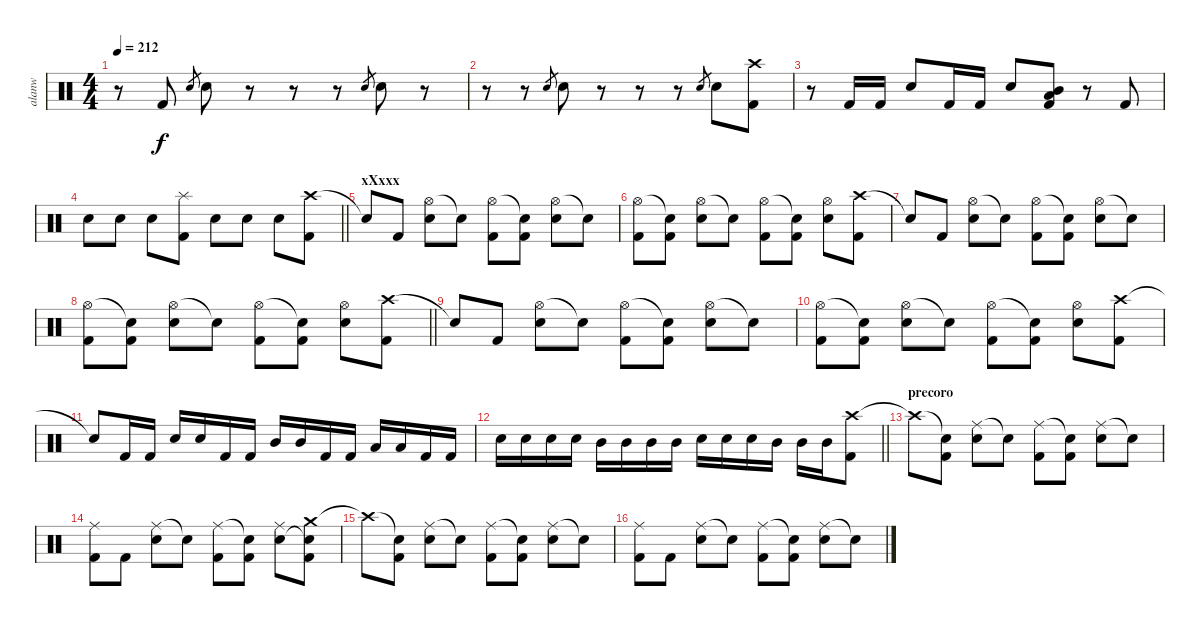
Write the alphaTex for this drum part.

\track ("alanw" "alanw") {instrument percussion}
\staff {score}
\articulation defaults
\ts (4 4)
\tempo 212
\clef neutral
\ks c
r.8{dy f} "Kick (hit) 2".8 "Electric Snare (hit)".8{gr} "Electric Snare (hit)".8 r.8 r.8 r.8 "Electric Snare (hit)".8{gr} "Electric Snare (hit)".8 r.8 |
r.8 r.8 "Electric Snare (hit)".8{gr} "Electric Snare (hit)".8 r.8 r.8 r.8 "Electric Snare (hit)".8{gr} "Electric Snare (hit)".8 ("Crash high (hit)" "Kick (hit) 2").8 |
r.8 "Kick (hit) 2".16 "Kick (hit) 2".16 "Electric Snare (hit)".8 "Kick (hit) 2".16 "Kick (hit) 2".16 "Electric Snare (hit)".8 ("Mid Tom (hit)" "Low Tom (hit)" "Kick (hit) 2").8 r.8 "Kick (hit) 2".8 |
\barLineRight lightlight "Electric Snare (hit)".8 "Electric Snare (hit)".8 "Electric Snare (hit)".8
("Splash (hit)" "Kick (hit) 2").8 "Electric Snare (hit)".8 "Electric Snare (hit)".8 "Electric Snare (hit)".8 ("Crash high (hit)" "Kick (hit) 2").8 |
\section ("" "xXxxx")
"Snare (hit)"{t}.8 "Kick (hit) 2".8 ("Hi-Hat (open)" "Electric Snare (hit)").8 "Snare (hit)"{t}.8 ("Hi-Hat (open)" "Kick (hit) 2").8 ("Snare (hit)"{t} "Kick (hit) 2").8 ("Hi-Hat (open)" "Electric Snare (hit)").8 "Snare (hit)"{t}.8 |
("Hi-Hat (open)" "Kick (hit) 2").8 ("Snare (hit)"{t} "Kick (hit) 2").8 ("Hi-Hat (open)" "Electric Snare (hit)").8 "Snare (hit)"{t}.8 ("Hi-Hat (open)" "Kick (hit) 2").8 ("Snare (hit)"{t} "Kick (hit) 2").8 ("Hi-Hat (open)" "Electric Snare (hit)").8 ("Crash high (hit)" "Kick (hit) 2").8 |
"Snare (hit)"{t}.8 "Kick (hit) 2".8 ("Hi-Hat (open)" "Electric Snare (hit)").8 "Snare (hit)"{t}.8 ("Hi-Hat (open)" "Kick (hit) 2").8 ("Snare (hit)"{t} "Kick (hit) 2").8 ("Hi-Hat (open)" "Electric Snare (hit)").8 "Snare (hit)"{t}.8 |
\barLineRight lightlight
("Hi-Hat (open)" "Kick (hit) 2").8 ("Snare (hit)"{t} "Kick (hit) 2").8 ("Hi-Hat (open)" "Electric Snare (hit)").8 "Snare (hit)"{t}.8 ("Hi-Hat (open)" "Kick (hit) 2").8 ("Snare (hit)"{t} "Kick (hit) 2").8 ("Hi-Hat (open)" "Electric Snare (hit)").8 ("Crash high (hit)" "Kick (hit) 2").8 |
"Snare (hit)"{t}.8 "Kick (hit) 2".8 ("Hi-Hat (open)" "Electric Snare (hit)").8 "Snare (hit)"{t}.8 ("Hi-Hat (open)" "Kick (hit) 2").8 ("Snare (hit)"{t} "Kick (hit) 2").8 ("Hi-Hat (open)" "Electric Snare (hit)").8 "Snare (hit)"{t}.8 |
("Hi-Hat (open)" "Kick (hit) 2").8 ("Snare (hit)"{t} "Kick (hit) 2").8 ("Hi-Hat (open)" "Electric Snare (hit)").8 "Snare (hit)"{t}.8 ("Hi-Hat (open)" "Kick (hit) 2").8 ("Snare (hit)"{t} "Kick (hit) 2").8 ("Hi-Hat (open)" "Electric Snare (hit)").8 ("Crash high (hit)" "Kick (hit) 2").8 |
"Snare (hit)"{t}.8 "Kick (hit) 2".16 "Kick (hit) 2".16 "Electric Snare (hit)".16 "Electric Snare (hit)".16 "Kick (hit) 2".16 "Kick (hit) 2".16 "Mid Tom (hit)".16 "Mid Tom (hit)".16 "Kick (hit) 2".16 "Kick (hit) 2".16 "Low Tom (hit)".16 "Low Tom (hit)".16 "Kick (hit) 2".16 "Kick (hit) 2".16 |
\barLineRight lightlight "Electric Snare (hit)".16 "Electric Snare (hit)".16 "Electric Snare (hit)".16 "Electric Snare (hit)".16 "Mid Tom (hit)".16 "Mid Tom (hit)".16 "Mid Tom (hit)".16 "Mid Tom (hit)".16 "Electric Snare (hit)".16 "Electric Snare (hit)".16 "Electric Snare (hit)".16 "Mid Tom (hit)".16 "Mid Tom (hit)".16 "Mid Tom (hit)".16
("Crash high (hit)" "Kick (hit) 2").8 |
\section ("" "precoro")
"Crash high (hit)"{t}.8 ("Snare (hit)"{t} "Kick (hit) 2").8 ("Ride (middle)" "Electric Snare (hit)").8 "Snare (hit)"{t}.8 ("Ride (middle)" "Kick (hit) 2").8 ("Snare (hit)"{t} "Kick (hit) 2").8 ("Ride (middle)" "Electric Snare (hit)").8 "Snare (hit)"{t}.8 |
("Ride (middle)" "Kick (hit) 2").8 "Kick (hit) 2".8 ("Ride (middle)" "Electric Snare (hit)").8 "Snare (hit)"{t}.8 ("Ride (middle)" "Kick (hit) 2").8 ("Snare (hit)"{t} "Kick (hit) 2").8 ("Ride (middle)" "Electric Snare (hit)").8 ("Crash medium (hit)" "Snare (hit)"{t} "Kick (hit) 2").8 |
"Crash high (hit)"{t}.8 ("Snare (hit)"{t} "Kick (hit) 2").8 ("Ride (middle)" "Electric Snare (hit)").8 "Snare (hit)"{t}.8 ("Ride (middle)" "Kick (hit) 2").8 ("Snare (hit)"{t} "Kick (hit) 2").8 ("Ride (middle)" "Electric Snare (hit)").8 "Snare (hit)"{t}.8 |
("Ride (middle)" "Kick (hit) 2").8 "Kick (hit) 2".8 ("Ride (middle)" "Electric Snare (hit)").8 "Snare (hit)"{t}.8 ("Ride (middle)" "Kick (hit) 2").8 ("Snare (hit)"{t} "Kick (hit) 2").8 ("Ride (middle)" "Electric Snare (hit)").8 "Snare (hit)"{t}.8
